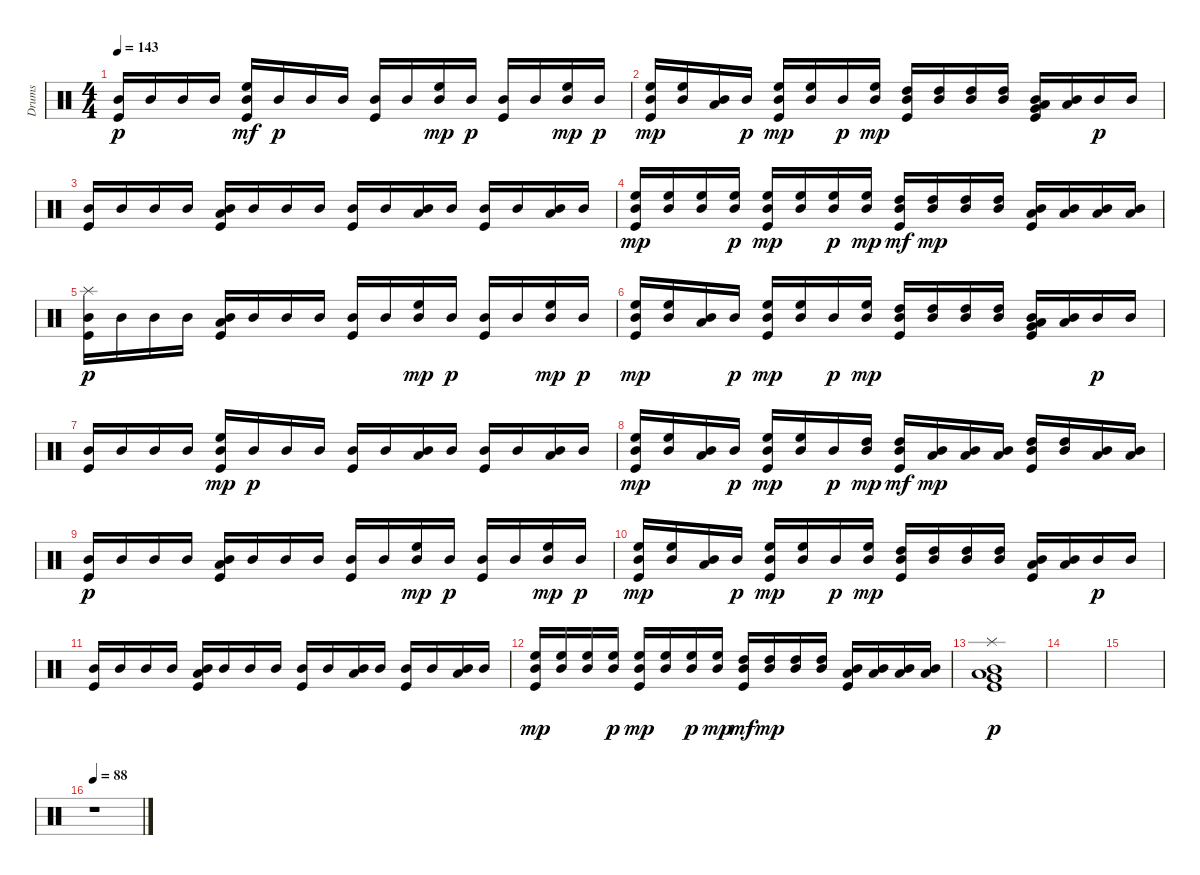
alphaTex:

\track ("Drums" "Drums") {instrument percussion}
\staff {score}
\articulation defaults
\ts (4 4)
\tempo 143
\clef neutral
\ks c
("Kick (hit)" "Mid Tom (hit)").16{dy p} "Mid Tom (hit)".16 "Mid Tom (hit)".16 "Mid Tom (hit)".16 ("Kick (hit)" "Mid Tom (hit)" "High Floor Tom (hit)").16{dy mf} "Mid Tom (hit)".16{dy p} "Mid Tom (hit)".16 "Mid Tom (hit)".16 ("Kick (hit)" "Mid Tom (hit)").16 "Mid Tom (hit)".16 ("Mid Tom (hit)" "High Floor Tom (hit)").16{dy mp} "Mid Tom (hit)".16{dy p} ("Kick (hit)" "Mid Tom (hit)").16 "Mid Tom (hit)".16 ("Mid Tom (hit)" "High Floor Tom (hit)").16{dy mp} "Mid Tom (hit)".16{dy p} |
("Kick (hit)" "Mid Tom (hit)" "High Floor Tom (hit)").16{dy mp} ("Mid Tom (hit)" "High Floor Tom (hit)").16 ("Mid Tom (hit)" "Low Tom (hit)").16 "Mid Tom (hit)".16{dy p} ("Kick (hit)" "Mid Tom (hit)" "High Floor Tom (hit)").16{dy mp} ("Mid Tom (hit)" "High Floor Tom (hit)").16 "Mid Tom (hit)".16{dy p} ("Mid Tom (hit)" "High Floor Tom (hit)").16{dy mp} ("Kick (hit)" "Mid Tom (hit)" "High Tom (hit)").16 ("Mid Tom (hit)" "High Tom (hit)").16 ("Mid Tom (hit)" "High Tom (hit)").16 ("Mid Tom (hit)" "High Tom (hit)").16 ("Kick (hit)" "Mid Tom (hit)" "Low Tom (hit)" "Very Low Tom (hit)").16 ("Mid Tom (hit)" "Low Tom (hit)").16 "Mid Tom (hit)".16{dy p} "Mid Tom (hit)".16 |
("Kick (hit)" "Mid Tom (hit)").16 "Mid Tom (hit)".16 "Mid Tom (hit)".16 "Mid Tom (hit)".16 ("Kick (hit)" "Mid Tom (hit)" "Low Tom (hit)").16 "Mid Tom (hit)".16 "Mid Tom (hit)".16 "Mid Tom (hit)".16 ("Kick (hit)" "Mid Tom (hit)").16 "Mid Tom (hit)".16 ("Mid Tom (hit)" "Low Tom (hit)").16 "Mid Tom (hit)".16 ("Kick (hit)" "Mid Tom (hit)").16 "Mid Tom (hit)".16 ("Mid Tom (hit)" "Low Tom (hit)").16 "Mid Tom (hit)".16 |
("Kick (hit)" "Mid Tom (hit)" "High Floor Tom (hit)").16{dy mp} ("Mid Tom (hit)" "High Floor Tom (hit)").16 ("Mid Tom (hit)" "High Floor Tom (hit)").16 ("Mid Tom (hit)" "High Floor Tom (hit)").16{dy p} ("Kick (hit)" "Mid Tom (hit)" "High Floor Tom (hit)").16{dy mp} ("Mid Tom (hit)" "High Floor Tom (hit)").16 ("Mid Tom (hit)" "High Floor Tom (hit)").16{dy p} ("Mid Tom (hit)" "High Floor Tom (hit)").16{dy mp} ("Kick (hit)" "Mid Tom (hit)" "High Tom (hit)").16{dy mf} ("Mid Tom (hit)" "High Tom (hit)").16{dy mp} ("Mid Tom (hit)" "High Tom (hit)").16 ("Mid Tom (hit)" "High Tom (hit)").16 ("Kick (hit)" "Mid Tom (hit)" "Low Tom (hit)").16 ("Mid Tom (hit)" "Low Tom (hit)").16 ("Mid Tom (hit)" "Low Tom (hit)").16 ("Mid Tom (hit)" "Low Tom (hit)").16 |
("Kick (hit)" "Mid Tom (hit)" "Splash (hit)").16{dy p} "Mid Tom (hit)".16 "Mid Tom (hit)".16 "Mid Tom (hit)".16 ("Kick (hit)" "Mid Tom (hit)" "Low Tom (hit)").16 "Mid Tom (hit)".16 "Mid Tom (hit)".16 "Mid Tom (hit)".16 ("Kick (hit)" "Mid Tom (hit)").16 "Mid Tom (hit)".16 ("Mid Tom (hit)" "High Floor Tom (hit)").16{dy mp} "Mid Tom (hit)".16{dy p} ("Kick (hit)" "Mid Tom (hit)").16 "Mid Tom (hit)".16 ("Mid Tom (hit)" "High Floor Tom (hit)").16{dy mp} "Mid Tom (hit)".16{dy p} |
("Kick (hit)" "Mid Tom (hit)" "High Floor Tom (hit)").16{dy mp} ("Mid Tom (hit)" "High Floor Tom (hit)").16 ("Mid Tom (hit)" "Low Tom (hit)").16 "Mid Tom (hit)".16{dy p} ("Kick (hit)" "Mid Tom (hit)" "High Floor Tom (hit)").16{dy mp} ("Mid Tom (hit)" "High Floor Tom (hit)").16 "Mid Tom (hit)".16{dy p} ("Mid Tom (hit)" "High Floor Tom (hit)").16{dy mp} ("Kick (hit)" "Mid Tom (hit)" "High Tom (hit)").16 ("Mid Tom (hit)" "High Tom (hit)").16 ("Mid Tom (hit)" "High Tom (hit)").16 ("Mid Tom (hit)" "High Tom (hit)").16 ("Kick (hit)" "Mid Tom (hit)" "Low Tom (hit)" "Very Low Tom (hit)").16 ("Mid Tom (hit)" "Low Tom (hit)").16 "Mid Tom (hit)".16{dy p} "Mid Tom (hit)".16 |
("Kick (hit)" "Mid Tom (hit)").16 "Mid Tom (hit)".16 "Mid Tom (hit)".16 "Mid Tom (hit)".16 ("Kick (hit)" "Mid Tom (hit)" "High Floor Tom (hit)").16{dy mp} "Mid Tom (hit)".16{dy p} "Mid Tom (hit)".16 "Mid Tom (hit)".16 ("Kick (hit)" "Mid Tom (hit)").16 "Mid Tom (hit)".16 ("Mid Tom (hit)" "Low Tom (hit)").16 "Mid Tom (hit)".16 ("Kick (hit)" "Mid Tom (hit)").16 "Mid Tom (hit)".16 ("Mid Tom (hit)" "Low Tom (hit)").16 "Mid Tom (hit)".16 |
("Kick (hit)" "Mid Tom (hit)" "High Floor Tom (hit)").16{dy mp} ("Mid Tom (hit)" "High Floor Tom (hit)").16 ("Mid Tom (hit)" "Low Tom (hit)").16 "Mid Tom (hit)".16{dy p} ("Kick (hit)" "Mid Tom (hit)" "High Floor Tom (hit)").16{dy mp} ("Mid Tom (hit)" "High Floor Tom (hit)").16 "Mid Tom (hit)".16{dy p} ("Mid Tom (hit)" "High Tom (hit)").16{dy mp} ("Kick (hit)" "Mid Tom (hit)" "High Tom (hit)").16{dy mf} ("Mid Tom (hit)" "Low Tom (hit)").16{dy mp} ("Mid Tom (hit)" "Low Tom (hit)").16 ("Mid Tom (hit)" "Low Tom (hit)").16 ("Kick (hit)" "Mid Tom (hit)" "High Tom (hit)").16 ("Mid Tom (hit)" "High Tom (hit)").16 ("Mid Tom (hit)" "Low Tom (hit)").16 ("Mid Tom (hit)" "Low Tom (hit)").16 |
("Kick (hit)" "Mid Tom (hit)").16{dy p} "Mid Tom (hit)".16 "Mid Tom (hit)".16 "Mid Tom (hit)".16 ("Kick (hit)" "Mid Tom (hit)" "Low Tom (hit)").16 "Mid Tom (hit)".16 "Mid Tom (hit)".16 "Mid Tom (hit)".16 ("Kick (hit)" "Mid Tom (hit)").16 "Mid Tom (hit)".16 ("Mid Tom (hit)" "High Floor Tom (hit)").16{dy mp} "Mid Tom (hit)".16{dy p} ("Kick (hit)" "Mid Tom (hit)").16 "Mid Tom (hit)".16 ("Mid Tom (hit)" "High Floor Tom (hit)").16{dy mp} "Mid Tom (hit)".16{dy p} |
("Kick (hit)" "Mid Tom (hit)" "High Floor Tom (hit)").16{dy mp} ("Mid Tom (hit)" "High Floor Tom (hit)").16 ("Mid Tom (hit)" "Low Tom (hit)").16 "Mid Tom (hit)".16{dy p} ("Kick (hit)" "Mid Tom (hit)" "High Floor Tom (hit)").16{dy mp} ("Mid Tom (hit)" "High Floor Tom (hit)").16 "Mid Tom (hit)".16{dy p} ("Mid Tom (hit)" "High Floor Tom (hit)").16{dy mp} ("Kick (hit)" "Mid Tom (hit)" "High Tom (hit)").16 ("Mid Tom (hit)" "High Tom (hit)").16 ("Mid Tom (hit)" "High Tom (hit)").16 ("Mid Tom (hit)" "High Tom (hit)").16 ("Kick (hit)" "Mid Tom (hit)" "Low Tom (hit)").16 ("Mid Tom (hit)" "Low Tom (hit)").16 "Mid Tom (hit)".16{dy p} "Mid Tom (hit)".16 |
("Kick (hit)" "Mid Tom (hit)").16 "Mid Tom (hit)".16 "Mid Tom (hit)".16 "Mid Tom (hit)".16 ("Kick (hit)" "Mid Tom (hit)" "Low Tom (hit)").16 "Mid Tom (hit)".16 "Mid Tom (hit)".16 "Mid Tom (hit)".16 ("Kick (hit)" "Mid Tom (hit)").16 "Mid Tom (hit)".16 ("Mid Tom (hit)" "Low Tom (hit)").16 "Mid Tom (hit)".16 ("Kick (hit)" "Mid Tom (hit)").16 "Mid Tom (hit)".16 ("Mid Tom (hit)" "Low Tom (hit)").16 "Mid Tom (hit)".16 |
("Kick (hit)" "Mid Tom (hit)" "High Floor Tom (hit)").16{dy mp} ("Mid Tom (hit)" "High Floor Tom (hit)").16 ("Mid Tom (hit)" "High Floor Tom (hit)").16 ("Mid Tom (hit)" "High Floor Tom (hit)").16{dy p} ("Kick (hit)" "Mid Tom (hit)" "High Floor Tom (hit)").16{dy mp} ("Mid Tom (hit)" "High Floor Tom (hit)").16 ("Mid Tom (hit)" "High Floor Tom (hit)").16{dy p} ("Mid Tom (hit)" "High Floor Tom (hit)").16{dy mp} ("Kick (hit)" "Mid Tom (hit)" "High Tom (hit)").16{dy mf} ("Mid Tom (hit)" "High Tom (hit)").16{dy mp} ("Mid Tom (hit)" "High Tom (hit)").16 ("Mid Tom (hit)" "High Tom (hit)").16 ("Kick (hit)" "Mid Tom (hit)" "Low Tom (hit)").16 ("Mid Tom (hit)" "Low Tom (hit)").16 ("Mid Tom (hit)" "Low Tom (hit)").16 ("Mid Tom (hit)" "Low Tom (hit)").16 |
("Kick (hit)" "Mid Tom (hit)" "Low Tom (hit)" "Very Low Tom (hit)" "Splash (hit)").1{dy p} |
|
|
\tempo 88
r.1
